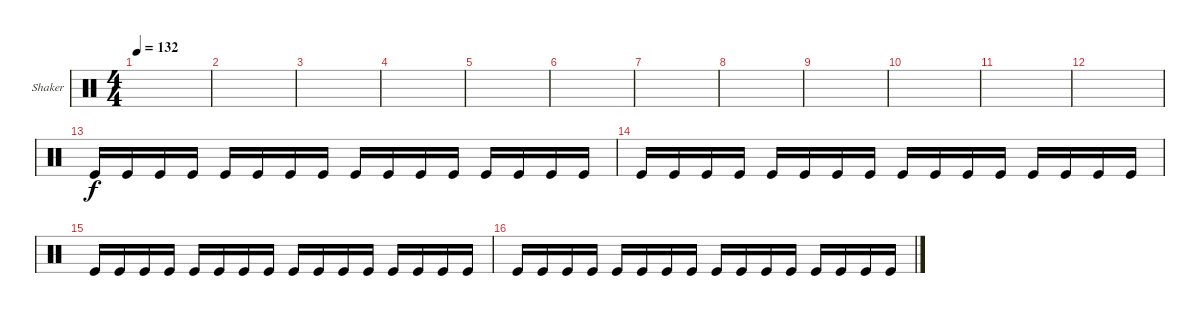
\defaultSystemsLayout 4
\bracketExtendMode groupsimilarinstruments
\firstSystemTrackNameOrientation horizontal
\otherSystemsTrackNameOrientation horizontal
\track ("Shaker" "Shaker") {instrument percussion}
\staff {score}
\articulation defaults
\ts (4 4)
\tempo 132
\clef neutral
\scale
0.333333
\ks c
|
\scale
0.333333 |
\scale
0.333333 |
\scale
0.333333 |
\scale
0.333333 |
\scale
0.333333 |
\scale
0.333333 |
\scale
0.333333 |
\scale
0.333333 |
\scale
0.333333 |
\scale
0.333333 |
\scale
0.333333 |
\scale
0.333333 "Kick (hit)".16 "Kick (hit)".16 "Kick (hit)".16 "Kick (hit)".16 "Kick (hit)".16 "Kick (hit)".16 "Kick (hit)".16 "Kick (hit)".16 "Kick (hit)".16 "Kick (hit)".16 "Kick (hit)".16 "Kick (hit)".16 "Kick (hit)".16 "Kick (hit)".16 "Kick (hit)".16 "Kick (hit)".16 |
\scale
0.333333 "Kick (hit)".16 "Kick (hit)".16 "Kick (hit)".16 "Kick (hit)".16 "Kick (hit)".16 "Kick (hit)".16 "Kick (hit)".16 "Kick (hit)".16 "Kick (hit)".16 "Kick (hit)".16 "Kick (hit)".16 "Kick (hit)".16 "Kick (hit)".16 "Kick (hit)".16 "Kick (hit)".16 "Kick (hit)".16 |
\scale
0.333333 "Kick (hit)".16 "Kick (hit)".16 "Kick (hit)".16 "Kick (hit)".16 "Kick (hit)".16 "Kick (hit)".16 "Kick (hit)".16 "Kick (hit)".16 "Kick (hit)".16 "Kick (hit)".16 "Kick (hit)".16 "Kick (hit)".16 "Kick (hit)".16 "Kick (hit)".16 "Kick (hit)".16 "Kick (hit)".16 |
\scale
0.333333 "Kick (hit)".16 "Kick (hit)".16 "Kick (hit)".16 "Kick (hit)".16 "Kick (hit)".16 "Kick (hit)".16 "Kick (hit)".16 "Kick (hit)".16 "Kick (hit)".16 "Kick (hit)".16 "Kick (hit)".16 "Kick (hit)".16 "Kick (hit)".16 "Kick (hit)".16 "Kick (hit)".16 "Kick (hit)".16
